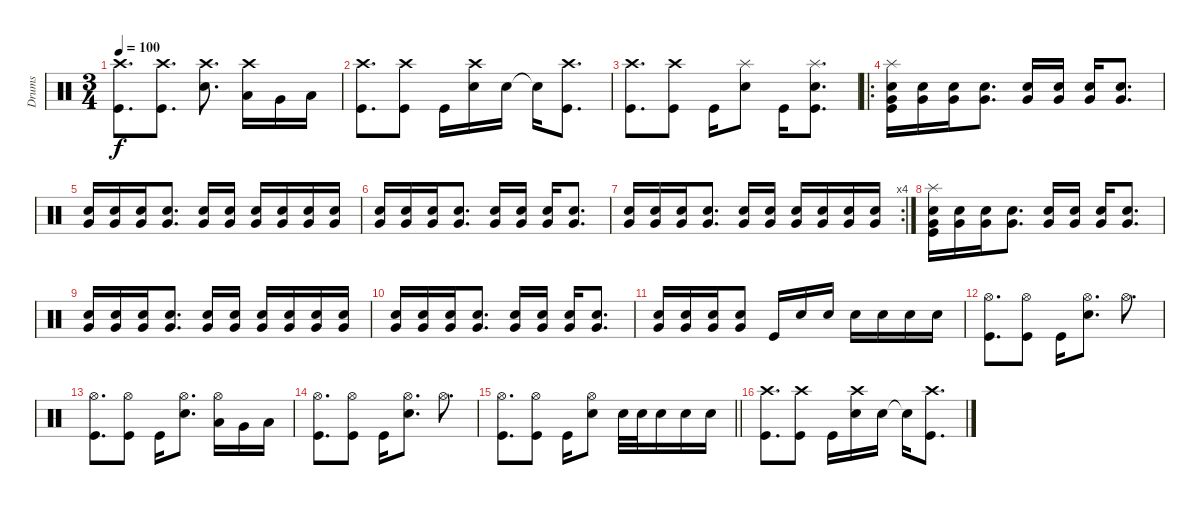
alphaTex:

\track ("Drums" "Drums") {instrument percussion}
\staff {score}
\articulation defaults
\ts (3 4)
\tempo 100
\clef neutral
\ks c
("Crash high (hit)" "Kick (hit)").8{d dy f} ("Crash high (hit)" "Kick (hit)").8{d} ("Crash high (hit)" "Snare (hit) 2").8{d} ("Crash high (hit)" "Low Floor Tom (hit)").16 "Very Low Tom (hit)".16 "Low Tom (hit)".16 |
("Crash high (hit)" "Kick (hit)").8{d} ("Crash high (hit)" "Kick (hit)").8 "Kick (hit)".16 ("Crash high (hit)" "Snare (hit) 2").16 "Snare (hit) 2".16 "Snare (hit) 2"{t}.16 ("Crash high (hit)" "Kick (hit)").8{d} |
("Crash high (hit)" "Kick (hit)").8{d} ("Crash high (hit)" "Kick (hit)").8 "Kick (hit)".16 ("Splash (hit)" "Snare (hit) 2").8 "Kick (hit)".16 ("Splash (hit)" "Snare (hit) 2" "Kick (hit)").8{d} |
\ro
("Splash (hit)" "Snare (hit) 2" "Very Low Tom (hit)" "Kick (hit)").16{volume 8} ("Snare (hit) 2" "Very Low Tom (hit)").16 ("Snare (hit) 2" "Very Low Tom (hit)").16 ("Snare (hit) 2" "Very Low Tom (hit)").8{d} ("Snare (hit) 2" "Very Low Tom (hit)").16 ("Snare (hit) 2" "Very Low Tom (hit)").16 ("Snare (hit) 2" "Very Low Tom (hit)").16 ("Snare (hit) 2" "Very Low Tom (hit)").8{d} |
("Snare (hit) 2" "Very Low Tom (hit)").16 ("Snare (hit) 2" "Very Low Tom (hit)").16 ("Snare (hit) 2" "Very Low Tom (hit)").16 ("Snare (hit) 2" "Very Low Tom (hit)").8{d} ("Snare (hit) 2" "Very Low Tom (hit)").16 ("Snare (hit) 2" "Very Low Tom (hit)").16 ("Snare (hit) 2" "Very Low Tom (hit)").16 ("Snare (hit) 2" "Very Low Tom (hit)").16 ("Snare (hit) 2" "Very Low Tom (hit)").16 ("Snare (hit) 2" "Very Low Tom (hit)").16 |
("Snare (hit) 2" "Very Low Tom (hit)").16 ("Snare (hit) 2" "Very Low Tom (hit)").16 ("Snare (hit) 2" "Very Low Tom (hit)").16 ("Snare (hit) 2" "Very Low Tom (hit)").8{d} ("Snare (hit) 2" "Very Low Tom (hit)").16 ("Snare (hit) 2" "Very Low Tom (hit)").16 ("Snare (hit) 2" "Very Low Tom (hit)").16 ("Snare (hit) 2" "Very Low Tom (hit)").8{d} |
\rc 4
("Snare (hit) 2" "Very Low Tom (hit)").16 ("Snare (hit) 2" "Very Low Tom (hit)").16 ("Snare (hit) 2" "Very Low Tom (hit)").16 ("Snare (hit) 2" "Very Low Tom (hit)").8{d} ("Snare (hit) 2" "Very Low Tom (hit)").16 ("Snare (hit) 2" "Very Low Tom (hit)").16 ("Snare (hit) 2" "Very Low Tom (hit)").16 ("Snare (hit) 2" "Very Low Tom (hit)").16 ("Snare (hit) 2" "Very Low Tom (hit)").16 ("Snare (hit) 2" "Very Low Tom (hit)").16 |
("Splash (hit)" "Snare (hit) 2" "Very Low Tom (hit)" "Kick (hit)").16 ("Snare (hit) 2" "Very Low Tom (hit)").16 ("Snare (hit) 2" "Very Low Tom (hit)").16 ("Snare (hit) 2" "Very Low Tom (hit)").8{d} ("Snare (hit) 2" "Very Low Tom (hit)").16 ("Snare (hit) 2" "Very Low Tom (hit)").16 ("Snare (hit) 2" "Very Low Tom (hit)").16 ("Snare (hit) 2" "Very Low Tom (hit)").8{d} |
("Snare (hit) 2" "Very Low Tom (hit)").16 ("Snare (hit) 2" "Very Low Tom (hit)").16 ("Snare (hit) 2" "Very Low Tom (hit)").16 ("Snare (hit) 2" "Very Low Tom (hit)").8{d} ("Snare (hit) 2" "Very Low Tom (hit)").16 ("Snare (hit) 2" "Very Low Tom (hit)").16 ("Snare (hit) 2" "Very Low Tom (hit)").16 ("Snare (hit) 2" "Very Low Tom (hit)").16 ("Snare (hit) 2" "Very Low Tom (hit)").16 ("Snare (hit) 2" "Very Low Tom (hit)").16 |
("Snare (hit) 2" "Very Low Tom (hit)").16 ("Snare (hit) 2" "Very Low Tom (hit)").16 ("Snare (hit) 2" "Very Low Tom (hit)").16 ("Snare (hit) 2" "Very Low Tom (hit)").8{d} ("Snare (hit) 2" "Very Low Tom (hit)").16 ("Snare (hit) 2" "Very Low Tom (hit)").16 ("Snare (hit) 2" "Very Low Tom (hit)").16 ("Snare (hit) 2" "Very Low Tom (hit)").8{d} |
("Snare (hit) 2" "Very Low Tom (hit)").16 ("Snare (hit) 2" "Very Low Tom (hit)").16 ("Snare (hit) 2" "Very Low Tom (hit)").16 ("Snare (hit) 2" "Very Low Tom (hit)").8 "Kick (hit)".16{volume 16} "Snare (hit) 2".16 "Snare (hit) 2".16 "Snare (hit) 2".16 "Snare (hit) 2".16 "Snare (hit) 2".16 "Snare (hit) 2".16 |
("Hi-Hat (open)" "Kick (hit)").8{d} ("Hi-Hat (open)" "Kick (hit)").8 "Kick (hit)".16 ("Hi-Hat (open)" "Snare (hit) 2").8{d} "Hi-Hat (open)".8{d} |
("Hi-Hat (open)" "Kick (hit)").8{d} ("Hi-Hat (open)" "Kick (hit)").8 "Kick (hit)".16 ("Hi-Hat (open)" "Snare (hit) 2").8{d} ("Hi-Hat (open)" "Low Floor Tom (hit)").16 "Very Low Tom (hit)".16 "Low Tom (hit)".16 |
("Hi-Hat (open)" "Kick (hit)").8{d} ("Hi-Hat (open)" "Kick (hit)").8 "Kick (hit)".16 ("Hi-Hat (open)" "Snare (hit) 2").8{d} "Hi-Hat (open)".8{d} |
\barLineRight lightlight
("Hi-Hat (open)" "Kick (hit)").8{d} ("Hi-Hat (open)" "Kick (hit)").8 "Kick (hit)".16 ("Hi-Hat (open)" "Snare (hit) 2").8 "Snare (hit) 2".32 "Snare (hit) 2".32 "Snare (hit) 2".16 "Snare (hit) 2".16 "Snare (hit) 2".16 |
("Crash high (hit)" "Kick (hit)").8{d} ("Crash high (hit)" "Kick (hit)").8 "Kick (hit)".16 ("Crash high (hit)" "Snare (hit) 2").16 "Snare (hit) 2".16 "Snare (hit) 2"{t}.16 ("Crash high (hit)" "Kick (hit)").8{d}
